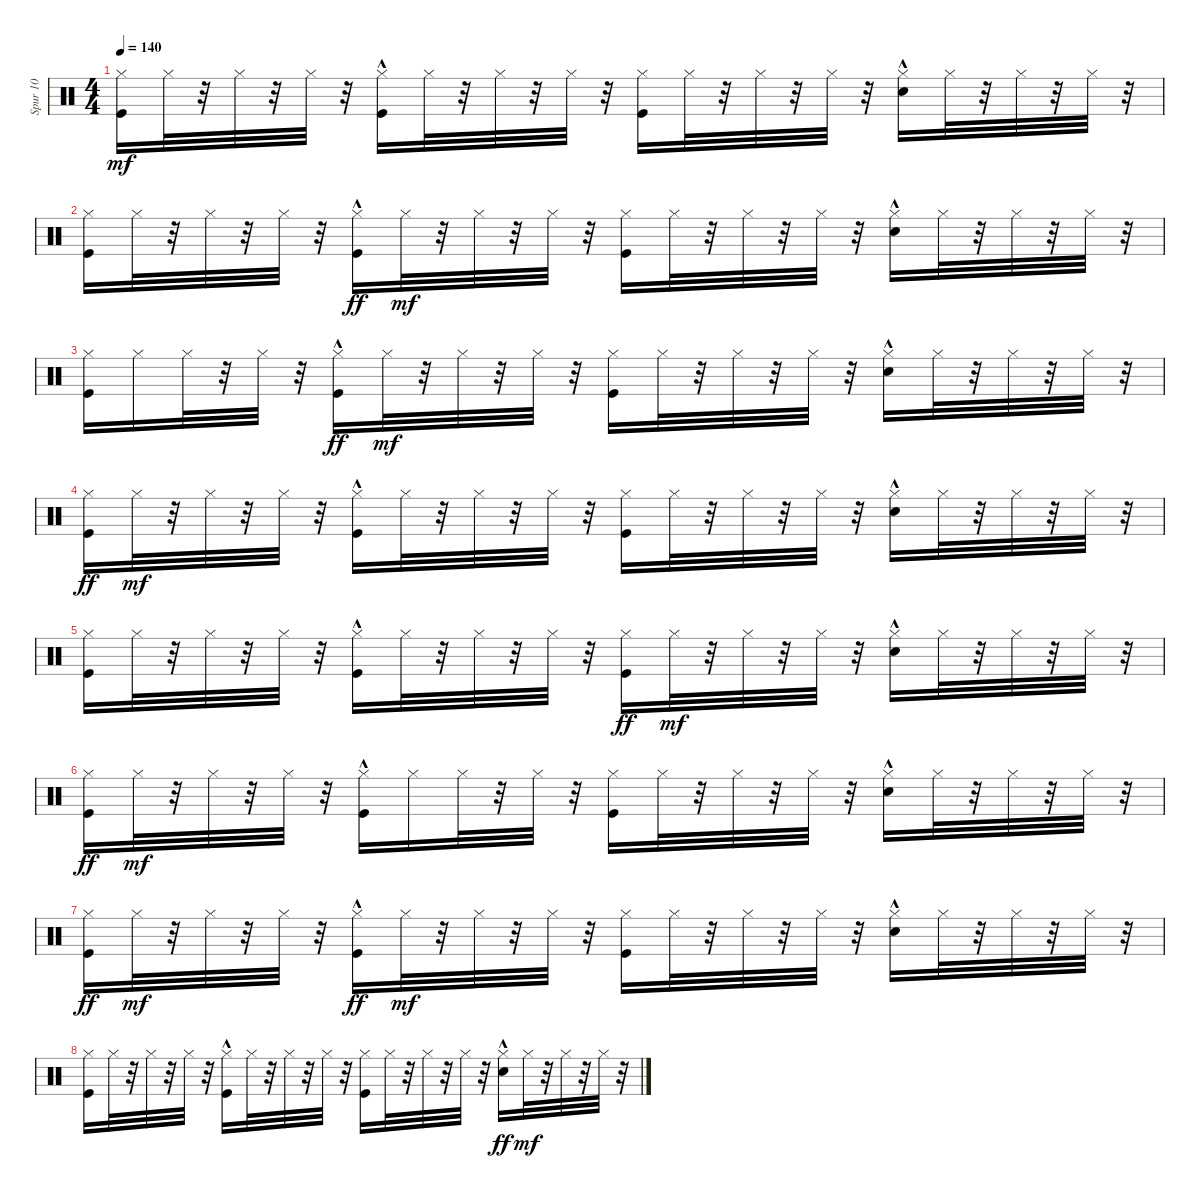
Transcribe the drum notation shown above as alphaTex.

\track ("Spur 10" "Spur 10") {instrument percussion}
\staff {score}
\articulation defaults
\ts (4 4)
\tempo 140
\clef neutral
\ks c
("Kick (hit)" "Hi-Hat (closed)").16{dy mf} "Hi-Hat (closed)".32 r.32 "Hi-Hat (closed)".32 r.32 "Hi-Hat (closed)".32 r.32 ("Kick (hit)"{hac} "Hi-Hat (closed)").16 "Hi-Hat (closed)".32 r.32 "Hi-Hat (closed)".32 r.32 "Hi-Hat (closed)".32 r.32 ("Kick (hit)" "Hi-Hat (closed)").16 "Hi-Hat (closed)".32 r.32 "Hi-Hat (closed)".32 r.32 "Hi-Hat (closed)".32 r.32 ("Snare (hit) 2"{hac} "Hi-Hat (closed)").16 "Hi-Hat (closed)".32 r.32 "Hi-Hat (closed)".32 r.32 "Hi-Hat (closed)".32 r.32 |
("Kick (hit)" "Hi-Hat (closed)").16 "Hi-Hat (closed)".32 r.32 "Hi-Hat (closed)".32 r.32 "Hi-Hat (closed)".32 r.32 ("Hi-Hat (closed)" "Kick (hit)"{hac}).16{dy ff} "Hi-Hat (closed)".32{dy mf} r.32 "Hi-Hat (closed)".32 r.32 "Hi-Hat (closed)".32 r.32 ("Kick (hit)" "Hi-Hat (closed)").16 "Hi-Hat (closed)".32 r.32 "Hi-Hat (closed)".32 r.32 "Hi-Hat (closed)".32 r.32 ("Snare (hit) 2"{hac} "Hi-Hat (closed)").16 "Hi-Hat (closed)".32 r.32 "Hi-Hat (closed)".32 r.32 "Hi-Hat (closed)".32 r.32 |
("Kick (hit)" "Hi-Hat (closed)").16 "Hi-Hat (closed)".16 "Hi-Hat (closed)".32 r.32 "Hi-Hat (closed)".32 r.32 ("Hi-Hat (closed)" "Kick (hit)"{hac}).16{dy ff} "Hi-Hat (closed)".32{dy mf} r.32 "Hi-Hat (closed)".32 r.32 "Hi-Hat (closed)".32 r.32 ("Kick (hit)" "Hi-Hat (closed)").16 "Hi-Hat (closed)".32 r.32 "Hi-Hat (closed)".32 r.32 "Hi-Hat (closed)".32 r.32 ("Snare (hit) 2"{hac} "Hi-Hat (closed)").16 "Hi-Hat (closed)".32 r.32 "Hi-Hat (closed)".32 r.32 "Hi-Hat (closed)".32 r.32 |
("Hi-Hat (closed)" "Kick (hit)").16{dy ff} "Hi-Hat (closed)".32{dy mf} r.32 "Hi-Hat (closed)".32 r.32 "Hi-Hat (closed)".32 r.32 ("Kick (hit)"{hac} "Hi-Hat (closed)").16 "Hi-Hat (closed)".32 r.32 "Hi-Hat (closed)".32 r.32 "Hi-Hat (closed)".32 r.32 ("Kick (hit)" "Hi-Hat (closed)").16 "Hi-Hat (closed)".32 r.32 "Hi-Hat (closed)".32 r.32 "Hi-Hat (closed)".32 r.32 ("Snare (hit) 2"{hac} "Hi-Hat (closed)").16 "Hi-Hat (closed)".32 r.32 "Hi-Hat (closed)".32 r.32 "Hi-Hat (closed)".32 r.32 |
("Kick (hit)" "Hi-Hat (closed)").16 "Hi-Hat (closed)".32 r.32 "Hi-Hat (closed)".32 r.32 "Hi-Hat (closed)".32 r.32 ("Kick (hit)"{hac} "Hi-Hat (closed)").16 "Hi-Hat (closed)".32 r.32 "Hi-Hat (closed)".32 r.32 "Hi-Hat (closed)".32 r.32 ("Hi-Hat (closed)" "Kick (hit)").16{dy ff} "Hi-Hat (closed)".32{dy mf} r.32 "Hi-Hat (closed)".32 r.32 "Hi-Hat (closed)".32 r.32 ("Snare (hit) 2"{hac} "Hi-Hat (closed)").16 "Hi-Hat (closed)".32 r.32 "Hi-Hat (closed)".32 r.32 "Hi-Hat (closed)".32 r.32 |
("Hi-Hat (closed)" "Kick (hit)").16{dy ff} "Hi-Hat (closed)".32{dy mf} r.32 "Hi-Hat (closed)".32 r.32 "Hi-Hat (closed)".32 r.32 ("Kick (hit)"{hac} "Hi-Hat (closed)").16 "Hi-Hat (closed)".16 "Hi-Hat (closed)".32 r.32 "Hi-Hat (closed)".32 r.32 ("Kick (hit)" "Hi-Hat (closed)").16 "Hi-Hat (closed)".32 r.32 "Hi-Hat (closed)".32 r.32 "Hi-Hat (closed)".32 r.32 ("Snare (hit) 2"{hac} "Hi-Hat (closed)").16 "Hi-Hat (closed)".32 r.32 "Hi-Hat (closed)".32 r.32 "Hi-Hat (closed)".32 r.32 |
("Hi-Hat (closed)" "Kick (hit)").16{dy ff} "Hi-Hat (closed)".32{dy mf} r.32 "Hi-Hat (closed)".32 r.32 "Hi-Hat (closed)".32 r.32 ("Hi-Hat (closed)" "Kick (hit)"{hac}).16{dy ff} "Hi-Hat (closed)".32{dy mf} r.32 "Hi-Hat (closed)".32 r.32 "Hi-Hat (closed)".32 r.32 ("Kick (hit)" "Hi-Hat (closed)").16 "Hi-Hat (closed)".32 r.32 "Hi-Hat (closed)".32 r.32 "Hi-Hat (closed)".32 r.32 ("Snare (hit) 2"{hac} "Hi-Hat (closed)").16 "Hi-Hat (closed)".32 r.32 "Hi-Hat (closed)".32 r.32 "Hi-Hat (closed)".32 r.32 |
("Kick (hit)" "Hi-Hat (closed)").16 "Hi-Hat (closed)".32 r.32 "Hi-Hat (closed)".32 r.32 "Hi-Hat (closed)".32 r.32 ("Kick (hit)"{hac} "Hi-Hat (closed)").16 "Hi-Hat (closed)".32 r.32 "Hi-Hat (closed)".32 r.32 "Hi-Hat (closed)".32 r.32 ("Kick (hit)" "Hi-Hat (closed)").16 "Hi-Hat (closed)".32 r.32 "Hi-Hat (closed)".32 r.32 "Hi-Hat (closed)".32 r.32 ("Hi-Hat (closed)" "Snare (hit) 2"{hac}).16{dy ff} "Hi-Hat (closed)".32{dy mf} r.32 "Hi-Hat (closed)".32 r.32 "Hi-Hat (closed)".32 r.32
